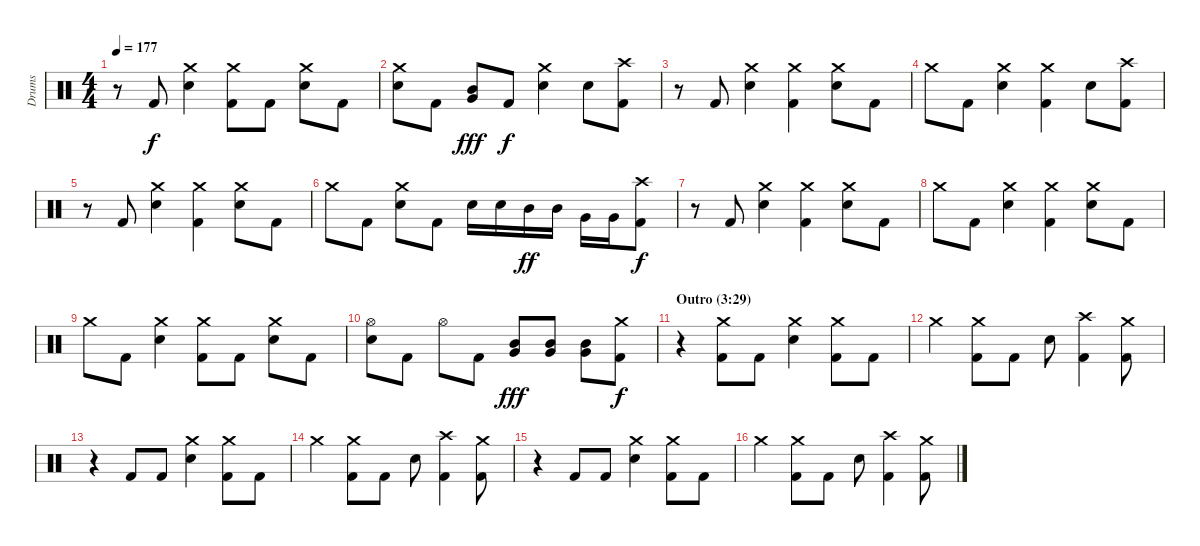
\track ("Drums" "Drums") {instrument percussion}
\staff {score}
\articulation defaults
\ts (4 4)
\tempo 177
\clef neutral
\ks c
r.8{dy f} "Kick (hit) 2".8 ("Crash medium (hit)" "Snare (hit) 2").4 ("Crash medium (hit)" "Kick (hit) 2").8 "Kick (hit) 2".8 ("Crash medium (hit)" "Snare (hit) 2").8 "Kick (hit) 2".8 |
("Crash medium (hit)" "Snare (hit) 2").8 "Kick (hit) 2".8 ("Mid Tom (hit)" "Very Low Tom (hit)").8{dy fff} "Kick (hit) 2".8{dy f} ("Crash medium (hit)" "Snare (hit) 2").4 "Snare (hit) 2".8 ("Crash high (hit)" "Kick (hit) 2").8 |
r.8 "Kick (hit) 2".8 ("Crash medium (hit)" "Snare (hit) 2").4 ("Crash medium (hit)" "Kick (hit) 2").4 ("Crash medium (hit)" "Snare (hit) 2").8 "Kick (hit) 2".8 |
"Crash medium (hit)".8 "Kick (hit) 2".8 ("Crash medium (hit)" "Snare (hit) 2").4 ("Crash medium (hit)" "Kick (hit) 2").4 "Snare (hit) 2".8 ("Crash high (hit)" "Kick (hit) 2").8 |
r.8 "Kick (hit) 2".8 ("Crash medium (hit)" "Snare (hit) 2").4 ("Crash medium (hit)" "Kick (hit) 2").4 ("Crash medium (hit)" "Snare (hit) 2").8 "Kick (hit) 2".8 |
"Crash medium (hit)".8 "Kick (hit) 2".8 ("Crash medium (hit)" "Snare (hit) 2").8 "Kick (hit) 2".8 "Snare (hit) 2".16 "Snare (hit) 2".16 "Mid Tom (hit)".16{dy ff} "Mid Tom (hit)".16 "Very Low Tom (hit)".16 "Very Low Tom (hit)".16 ("Crash high (hit)" "Kick (hit) 2").8{dy f} |
r.8 "Kick (hit) 2".8 ("Crash medium (hit)" "Snare (hit) 2").4 ("Crash medium (hit)" "Kick (hit) 2").4 ("Crash medium (hit)" "Snare (hit) 2").8 "Kick (hit) 2".8 |
"Crash medium (hit)".8 "Kick (hit) 2".8 ("Crash medium (hit)" "Snare (hit) 2").4 ("Crash medium (hit)" "Kick (hit) 2").4 ("Crash medium (hit)" "Snare (hit) 2").8 "Kick (hit) 2".8 |
"Crash medium (hit)".8 "Kick (hit) 2".8 ("Crash medium (hit)" "Snare (hit) 2").4 ("Crash medium (hit)" "Kick (hit) 2").8 "Kick (hit) 2".8 ("Crash medium (hit)" "Snare (hit) 2").8 "Kick (hit) 2".8 |
("Hi-Hat (open)" "Snare (hit) 2").8 "Kick (hit) 2".8 "Hi-Hat (open)".8 "Kick (hit) 2".8 ("Mid Tom (hit)" "Very Low Tom (hit)").8{dy fff} ("Mid Tom (hit)" "Very Low Tom (hit)").8 ("Mid Tom (hit)" "Very Low Tom (hit)").8 ("Crash medium (hit)" "Kick (hit) 2").8{dy f} |
\section ("" "Outro (3:29)")
r.4 ("Crash medium (hit)" "Kick (hit) 2").8 "Kick (hit) 2".8 ("Crash medium (hit)" "Snare (hit) 2").4 ("Crash medium (hit)" "Kick (hit) 2").8 "Kick (hit) 2".8 |
"Crash medium (hit)".4 ("Crash medium (hit)" "Kick (hit) 2").8 "Kick (hit) 2".8 "Snare (hit) 2".8 ("Crash high (hit)" "Kick (hit) 2").4 ("Crash medium (hit)" "Kick (hit) 2").8 |
r.4 "Kick (hit) 2".8 "Kick (hit) 2".8 ("Crash medium (hit)" "Snare (hit) 2").4 ("Crash medium (hit)" "Kick (hit) 2").8 "Kick (hit) 2".8 |
"Crash medium (hit)".4 ("Crash medium (hit)" "Kick (hit) 2").8 "Kick (hit) 2".8 "Snare (hit) 2".8 ("Crash high (hit)" "Kick (hit) 2").4 ("Crash medium (hit)" "Kick (hit) 2").8 |
r.4 "Kick (hit) 2".8 "Kick (hit) 2".8 ("Crash medium (hit)" "Snare (hit) 2").4 ("Crash medium (hit)" "Kick (hit) 2").8 "Kick (hit) 2".8 |
"Crash medium (hit)".4 ("Crash medium (hit)" "Kick (hit) 2").8 "Kick (hit) 2".8 "Snare (hit) 2".8 ("Crash high (hit)" "Kick (hit) 2").4 ("Crash medium (hit)" "Kick (hit) 2").8
